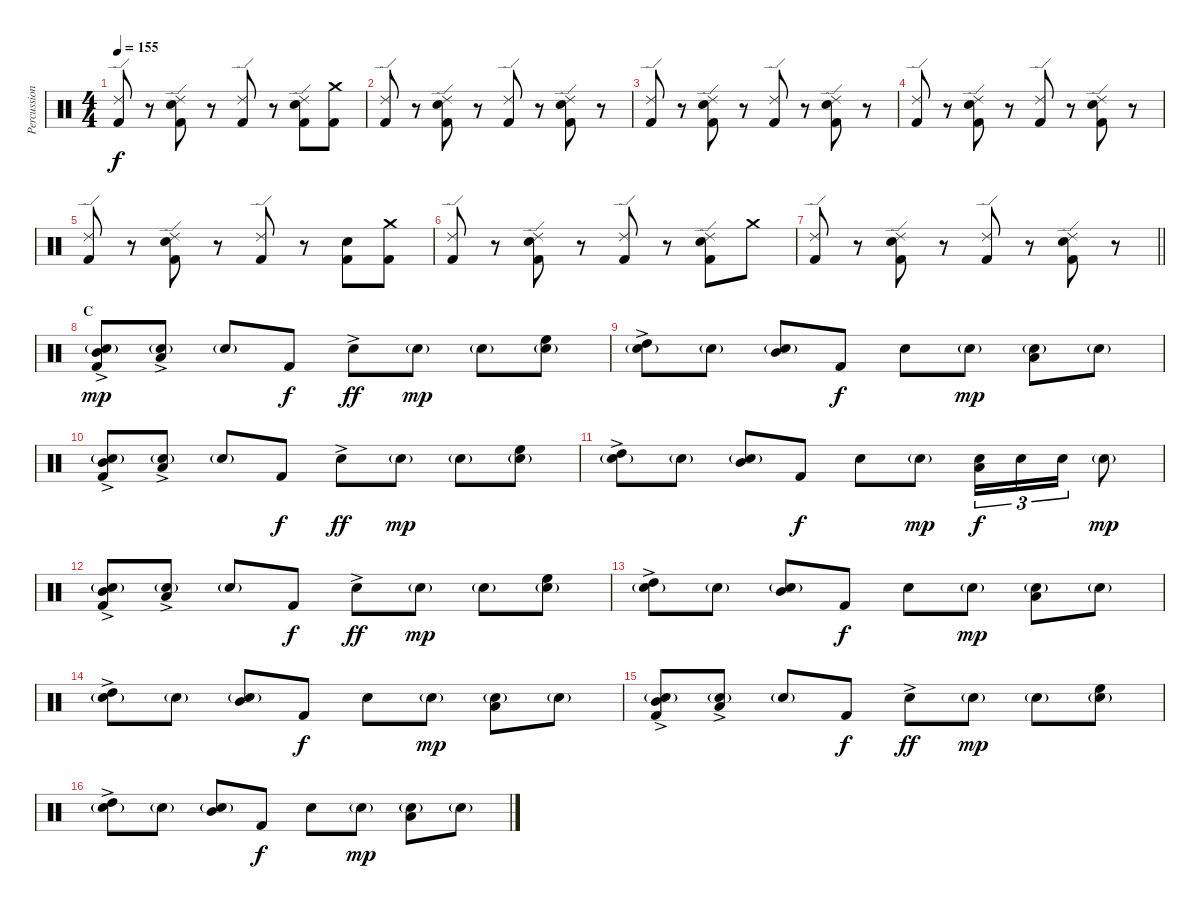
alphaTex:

\track ("Percussion" "Percussion") {instrument percussion}
\staff {score}
\articulation defaults
\ts (4 4)
\tempo 155
\clef neutral
\ks c
("Ride (edge) 2" "Kick (hit) 2").8{dy f} r.8 ("Ride (edge) 2" "Snare (hit) 2" "Kick (hit) 2").8 r.8 ("Ride (edge) 2" "Kick (hit) 2").8 r.8 ("Ride (edge) 2" "Snare (hit) 2" "Kick (hit) 2").8 ("Crash medium (hit)" "Kick (hit) 2").8 |
("Ride (edge) 2" "Kick (hit) 2").8 r.8 ("Ride (edge) 2" "Snare (hit) 2" "Kick (hit) 2").8 r.8 ("Ride (edge) 2" "Kick (hit) 2").8 r.8 ("Ride (edge) 2" "Snare (hit) 2" "Kick (hit) 2").8 r.8 |
("Ride (edge) 2" "Kick (hit) 2").8 r.8 ("Ride (edge) 2" "Snare (hit) 2" "Kick (hit) 2").8 r.8 ("Ride (edge) 2" "Kick (hit) 2").8 r.8 ("Ride (edge) 2" "Snare (hit) 2" "Kick (hit) 2").8 r.8 |
("Ride (edge) 2" "Kick (hit) 2").8 r.8 ("Ride (edge) 2" "Snare (hit) 2" "Kick (hit) 2").8 r.8 ("Ride (edge) 2" "Kick (hit) 2").8 r.8 ("Ride (edge) 2" "Snare (hit) 2" "Kick (hit) 2").8 r.8 |
("Ride (edge) 2" "Kick (hit) 2").8 r.8 ("Ride (edge) 2" "Snare (hit) 2" "Kick (hit) 2").8 r.8 ("Ride (edge) 2" "Kick (hit) 2").8 r.8 ("Snare (hit) 2" "Kick (hit) 2").8 ("Crash medium (hit)" "Kick (hit) 2").8 |
("Ride (edge) 2" "Kick (hit) 2").8 r.8 ("Ride (edge) 2" "Snare (hit) 2" "Kick (hit) 2").8 r.8 ("Ride (edge) 2" "Kick (hit) 2").8 r.8 ("Ride (edge) 2" "Snare (hit) 2" "Kick (hit) 2").8 "Crash medium (hit)".8 |
\barLineRight lightlight
("Ride (edge) 2" "Kick (hit) 2").8 r.8 ("Ride (edge) 2" "Snare (hit) 2" "Kick (hit) 2").8 r.8 ("Ride (edge) 2" "Kick (hit) 2").8 r.8 ("Ride (edge) 2" "Snare (hit) 2" "Kick (hit) 2").8 r.8 |
\section ("" "C")
("Mid Tom (hit)"{ac} "Snare (hit) 2"{g} "Kick (hit) 2").8{dy mp} ("Low Tom (hit)"{ac} "Snare (hit) 2"{g}).8 "Snare (hit) 2"{g}.8 "Kick (hit) 2".8{dy f} "Snare (hit) 2"{ac}.8{dy ff} "Snare (hit) 2"{g}.8{dy mp} "Snare (hit) 2"{g}.8 ("High Floor Tom (hit)" "Snare (hit) 2"{g}).8 |
("High Tom (hit)"{ac} "Snare (hit) 2"{g}).8 "Snare (hit) 2"{g}.8 ("Mid Tom (hit)" "Snare (hit) 2"{g}).8 "Kick (hit) 2".8{dy f} "Snare (hit) 2".8 "Snare (hit) 2"{g}.8{dy mp} ("Low Tom (hit)" "Snare (hit) 2"{g}).8 "Snare (hit) 2"{g}.8 |
("Mid Tom (hit)"{ac} "Snare (hit) 2"{g} "Kick (hit) 2").8 ("Low Tom (hit)"{ac} "Snare (hit) 2"{g}).8 "Snare (hit) 2"{g}.8 "Kick (hit) 2".8{dy f} "Snare (hit) 2"{ac}.8{dy ff} "Snare (hit) 2"{g}.8{dy mp} "Snare (hit) 2"{g}.8 ("High Floor Tom (hit)" "Snare (hit) 2"{g}).8 |
("High Tom (hit)"{ac} "Snare (hit) 2"{g}).8 "Snare (hit) 2"{g}.8 ("Mid Tom (hit)" "Snare (hit) 2"{g}).8 "Kick (hit) 2".8{dy f} "Snare (hit) 2".8 "Snare (hit) 2"{g}.8{dy mp} ("Low Tom (hit)" "Snare (hit) 2").16{tu (3 2) dy f} "Snare (hit) 2".16{tu (3 2)} "Snare (hit) 2".16{tu (3 2)} "Snare (hit) 2"{g}.8{dy mp} |
("Mid Tom (hit)"{ac} "Snare (hit) 2"{g} "Kick (hit) 2").8 ("Low Tom (hit)"{ac} "Snare (hit) 2"{g}).8 "Snare (hit) 2"{g}.8 "Kick (hit) 2".8{dy f} "Snare (hit) 2"{ac}.8{dy ff} "Snare (hit) 2"{g}.8{dy mp} "Snare (hit) 2"{g}.8 ("High Floor Tom (hit)" "Snare (hit) 2"{g}).8 |
("High Tom (hit)"{ac} "Snare (hit) 2"{g}).8 "Snare (hit) 2"{g}.8 ("Mid Tom (hit)" "Snare (hit) 2"{g}).8 "Kick (hit) 2".8{dy f} "Snare (hit) 2".8 "Snare (hit) 2"{g}.8{dy mp} ("Low Tom (hit)" "Snare (hit) 2"{g}).8 "Snare (hit) 2"{g}.8 |
("High Tom (hit)"{ac} "Snare (hit) 2"{g}).8 "Snare (hit) 2"{g}.8 ("Mid Tom (hit)" "Snare (hit) 2"{g}).8 "Kick (hit) 2".8{dy f} "Snare (hit) 2".8 "Snare (hit) 2"{g}.8{dy mp} ("Low Tom (hit)" "Snare (hit) 2"{g}).8 "Snare (hit) 2"{g}.8 |
("Mid Tom (hit)"{ac} "Snare (hit) 2"{g} "Kick (hit) 2").8 ("Low Tom (hit)"{ac} "Snare (hit) 2"{g}).8 "Snare (hit) 2"{g}.8 "Kick (hit) 2".8{dy f} "Snare (hit) 2"{ac}.8{dy ff} "Snare (hit) 2"{g}.8{dy mp} "Snare (hit) 2"{g}.8 ("High Floor Tom (hit)" "Snare (hit) 2"{g}).8 |
("High Tom (hit)"{ac} "Snare (hit) 2"{g}).8 "Snare (hit) 2"{g}.8 ("Mid Tom (hit)" "Snare (hit) 2"{g}).8 "Kick (hit) 2".8{dy f} "Snare (hit) 2".8 "Snare (hit) 2"{g}.8{dy mp} ("Low Tom (hit)" "Snare (hit) 2"{g}).8 "Snare (hit) 2"{g}.8
